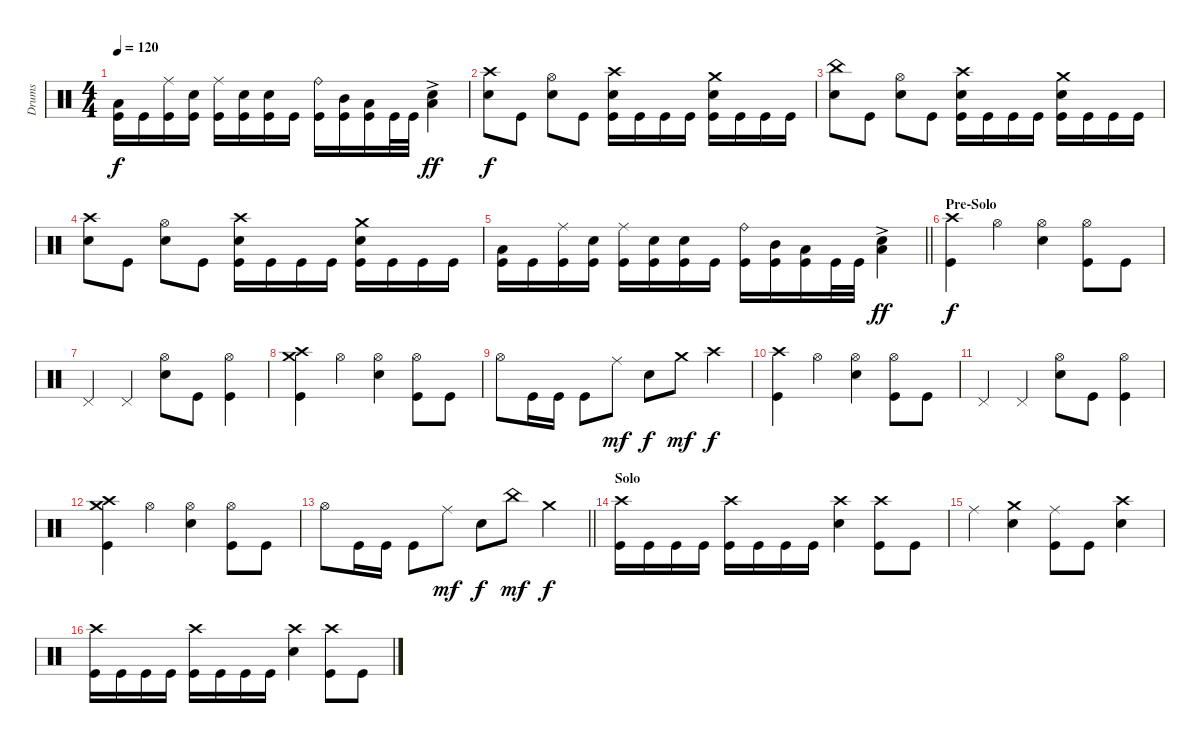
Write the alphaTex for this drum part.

\track ("Drums" "Drums") {instrument percussion}
\staff {score}
\articulation defaults
\ts (4 4)
\tempo 120
\clef neutral
\ks c
("Low Tom (hit)" "Kick (hit)").16{dy f} "Kick (hit)".16 ("Ride (middle)" "Kick (hit)").16 ("Electric Snare (hit)" "Kick (hit)").16 ("Ride (middle)" "Kick (hit)").16 ("Electric Snare (hit)" "Kick (hit)").16 ("Electric Snare (hit)" "Kick (hit)").16 "Kick (hit)".16 ("Ride (bell)" "Kick (hit)").16 ("Mid Tom (hit)" "Kick (hit)").16 ("Low Tom (hit)" "Kick (hit)").16 "Kick (hit)".32 "Kick (hit)".32 ("Electric Snare (hit)"{ac} "Low Tom (hit)").4{dy ff} |
("Crash high (hit)" "Electric Snare (hit)").8{dy f} "Kick (hit)".8 ("Hi-Hat (open)" "Electric Snare (hit)").8 "Kick (hit)".8 ("Crash high (hit)" "Electric Snare (hit)" "Kick (hit)").16 "Kick (hit)".16 "Kick (hit)".16 "Kick (hit)".16 ("Crash medium (hit)" "Electric Snare (hit)" "Kick (hit)").16 "Kick (hit)".16 "Kick (hit)".16 "Kick (hit)".16 |
("China (hit)" "Electric Snare (hit)").8 "Kick (hit)".8 ("Hi-Hat (open)" "Electric Snare (hit)").8 "Kick (hit)".8 ("Crash high (hit)" "Electric Snare (hit)" "Kick (hit)").16 "Kick (hit)".16 "Kick (hit)".16 "Kick (hit)".16 ("Crash medium (hit)" "Electric Snare (hit)" "Kick (hit)").16 "Kick (hit)".16 "Kick (hit)".16 "Kick (hit)".16 |
("Crash high (hit)" "Electric Snare (hit)").8 "Kick (hit)".8 ("Hi-Hat (open)" "Electric Snare (hit)").8 "Kick (hit)".8 ("Crash high (hit)" "Electric Snare (hit)" "Kick (hit)").16 "Kick (hit)".16 "Kick (hit)".16 "Kick (hit)".16 ("Crash medium (hit)" "Electric Snare (hit)" "Kick (hit)").16 "Kick (hit)".16 "Kick (hit)".16 "Kick (hit)".16 |
\barLineRight lightlight
("Low Tom (hit)" "Kick (hit)").16 "Kick (hit)".16 ("Ride (middle)" "Kick (hit)").16 ("Electric Snare (hit)" "Kick (hit)").16 ("Ride (middle)" "Kick (hit)").16 ("Electric Snare (hit)" "Kick (hit)").16 ("Electric Snare (hit)" "Kick (hit)").16 "Kick (hit)".16 ("Ride (bell)" "Kick (hit)").16 ("Mid Tom (hit)" "Kick (hit)").16 ("Low Tom (hit)" "Kick (hit)").16 "Kick (hit)".32 "Kick (hit)".32 ("Low Tom (hit)"{ac} "Electric Snare (hit)").4{dy ff} |
\section ("" "Pre-Solo")
("Crash high (hit)" "Kick (hit)").4{dy f} "Hi-Hat (open)".4 ("Hi-Hat (open)" "Electric Snare (hit)").4 ("Hi-Hat (open)" "Kick (hit)").8 "Kick (hit)".8 |
"Pedal Hi-Hat (hit)".4 "Pedal Hi-Hat (hit)".4 ("Hi-Hat (open)" "Electric Snare (hit)").8 "Kick (hit)".8 ("Hi-Hat (open)" "Kick (hit)").4 |
("Crash high (hit)" "Crash medium (hit)" "Kick (hit)").4 "Hi-Hat (open)".4 ("Hi-Hat (open)" "Electric Snare (hit)").4 ("Hi-Hat (open)" "Kick (hit)").8 "Kick (hit)".8 |
"Hi-Hat (open)".8 "Kick (hit)".16 "Kick (hit)".16 "Kick (hit)".8 "Ride (middle)".8{dy mf} "Electric Snare (hit)".8{dy f} "Crash medium (hit)".8{dy mf} "Crash high (hit)".4{dy f} |
("Crash high (hit)" "Kick (hit)").4 "Hi-Hat (open)".4 ("Hi-Hat (open)" "Electric Snare (hit)").4 ("Hi-Hat (open)" "Kick (hit)").8 "Kick (hit)".8 |
"Pedal Hi-Hat (hit)".4 "Pedal Hi-Hat (hit)".4 ("Hi-Hat (open)" "Electric Snare (hit)").8 "Kick (hit)".8 ("Hi-Hat (open)" "Kick (hit)").4 |
("Crash high (hit)" "Crash medium (hit)" "Kick (hit)").4 "Hi-Hat (open)".4 ("Hi-Hat (open)" "Electric Snare (hit)").4 ("Hi-Hat (open)" "Kick (hit)").8 "Kick (hit)".8 |
\barLineRight lightlight "Hi-Hat (open)".8 "Kick (hit)".16 "Kick (hit)".16 "Kick (hit)".8 "Ride (middle)".8{dy mf} "Electric Snare (hit)".8{dy f} "China (hit)".8{dy mf} "Crash medium (hit)".4{dy f}
|
\section ("" "Solo")
("Crash high (hit)" "Kick (hit)").16 "Kick (hit)".16 "Kick (hit)".16 "Kick (hit)".16 ("Crash high (hit)" "Kick (hit)").16 "Kick (hit)".16 "Kick (hit)".16 "Kick (hit)".16 ("Crash high (hit)" "Electric Snare (hit)").4 ("Crash high (hit)" "Kick (hit)").8 "Kick (hit)".8 |
"Ride (middle)".4 ("Crash medium (hit)" "Electric Snare (hit)").4 ("Ride (middle)" "Kick (hit)").8 "Kick (hit)".8 ("Crash high (hit)" "Electric Snare (hit)").4 |
("Crash high (hit)" "Kick (hit)").16 "Kick (hit)".16 "Kick (hit)".16 "Kick (hit)".16 ("Crash high (hit)" "Kick (hit)").16 "Kick (hit)".16 "Kick (hit)".16 "Kick (hit)".16 ("Crash high (hit)" "Electric Snare (hit)").4 ("Crash high (hit)" "Kick (hit)").8 "Kick (hit)".8
